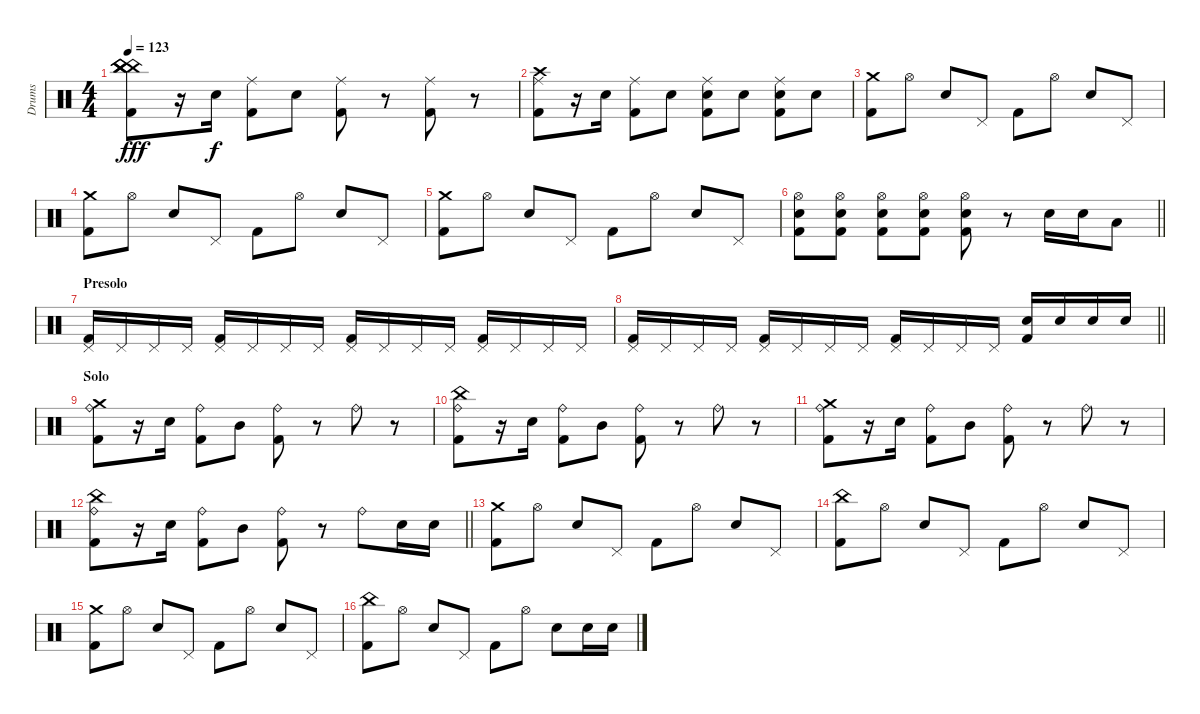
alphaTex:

\track ("Drums" "Drums") {instrument percussion}
\staff {score}
\articulation defaults
\ts (4 4)
\tempo 123
\clef neutral
\ks c
("China (hit)" "China (hit)" "China (hit)" "China (hit)" "Kick (hit) 2").8{dy fff} r.16 "Snare (hit) 2".16{dy f} ("Ride (middle)" "Kick (hit) 2").8 "Snare (hit) 2".8 ("Ride (middle)" "Kick (hit) 2").8 r.8 ("Ride (middle)" "Kick (hit) 2").8 r.8 |
("Crash high (hit)" "Ride (middle)" "Kick (hit) 2").8 r.16 "Snare (hit) 2".16 ("Ride (middle)" "Kick (hit) 2").8 "Snare (hit) 2".8 ("Ride (middle)" "Snare (hit) 2" "Kick (hit) 2").8 "Snare (hit) 2".8 ("Ride (middle)" "Snare (hit) 2" "Kick (hit) 2").8 "Snare (hit) 2".8 |
("Crash medium (hit)" "Kick (hit) 2").8 "Hi-Hat (open)".8 "Snare (hit) 2".8 "Pedal Hi-Hat (hit)".8 "Kick (hit) 2".8 "Hi-Hat (open)".8 "Snare (hit) 2".8 "Pedal Hi-Hat (hit)".8 |
("Crash medium (hit)" "Kick (hit) 2").8 "Hi-Hat (open)".8 "Snare (hit) 2".8 "Pedal Hi-Hat (hit)".8 "Kick (hit) 2".8 "Hi-Hat (open)".8 "Snare (hit) 2".8 "Pedal Hi-Hat (hit)".8 |
("Crash medium (hit)" "Kick (hit) 2").8 "Hi-Hat (open)".8 "Snare (hit) 2".8 "Pedal Hi-Hat (hit)".8 "Kick (hit) 2".8 "Hi-Hat (open)".8 "Snare (hit) 2".8 "Pedal Hi-Hat (hit)".8 |
\barLineRight lightlight
("Hi-Hat (open)" "Snare (hit) 2" "Kick (hit) 2").8 ("Hi-Hat (open)" "Snare (hit) 2" "Kick (hit) 2").8 ("Hi-Hat (open)" "Snare (hit) 2" "Kick (hit) 2").8 ("Hi-Hat (open)" "Snare (hit) 2" "Kick (hit) 2").8 ("Hi-Hat (open)" "Snare (hit) 2" "Kick (hit) 2").8 r.8 "Snare (hit) 2".16 "Snare (hit) 2".16 "Low Tom (hit)".8 |
\section ("" "Presolo")
("Pedal Hi-Hat (hit)" "Kick (hit) 2").16 "Pedal Hi-Hat (hit)".16 "Pedal Hi-Hat (hit)".16 "Pedal Hi-Hat (hit)".16 ("Pedal Hi-Hat (hit)" "Kick (hit) 2").16 "Pedal Hi-Hat (hit)".16 "Pedal Hi-Hat (hit)".16 "Pedal Hi-Hat (hit)".16 ("Pedal Hi-Hat (hit)" "Kick (hit) 2").16 "Pedal Hi-Hat (hit)".16 "Pedal Hi-Hat (hit)".16 "Pedal Hi-Hat (hit)".16 ("Pedal Hi-Hat (hit)" "Kick (hit) 2").16 "Pedal Hi-Hat (hit)".16 "Pedal Hi-Hat (hit)".16 "Pedal Hi-Hat (hit)".16 |
\barLineRight lightlight
("Pedal Hi-Hat (hit)" "Kick (hit) 2").16 "Pedal Hi-Hat (hit)".16 "Pedal Hi-Hat (hit)".16 "Pedal Hi-Hat (hit)".16 ("Pedal Hi-Hat (hit)" "Kick (hit) 2").16 "Pedal Hi-Hat (hit)".16 "Pedal Hi-Hat (hit)".16 "Pedal Hi-Hat (hit)".16 ("Pedal Hi-Hat (hit)" "Kick (hit) 2").16 "Pedal Hi-Hat (hit)".16 "Pedal Hi-Hat (hit)".16 "Pedal Hi-Hat (hit)".16 ("Snare (hit) 2" "Kick (hit) 2").16 "Snare (hit) 2".16 "Snare (hit) 2".16 "Snare (hit) 2".16 |
\section ("" "Solo")
("Crash medium (hit)" "Ride (bell)" "Kick (hit) 2").8 r.16 "Snare (hit) 2".16 ("Ride (bell)" "Kick (hit) 2").8 "Mid Tom (hit)".8 ("Ride (bell)" "Kick (hit) 2").8 r.8 "Ride (bell)".8 r.8 |
("China (hit)" "Ride (bell)" "Kick (hit) 2").8 r.16 "Snare (hit) 2".16 ("Ride (bell)" "Kick (hit) 2").8 "Mid Tom (hit)".8 ("Ride (bell)" "Kick (hit) 2").8 r.8 "Ride (bell)".8 r.8 |
("Crash medium (hit)" "Ride (bell)" "Kick (hit) 2").8 r.16 "Snare (hit) 2".16 ("Ride (bell)" "Kick (hit) 2").8 "Mid Tom (hit)".8 ("Ride (bell)" "Kick (hit) 2").8 r.8 "Ride (bell)".8 r.8 |
\barLineRight lightlight
("China (hit)" "Ride (bell)" "Kick (hit) 2").8 r.16 "Snare (hit) 2".16 ("Ride (bell)" "Kick (hit) 2").8 "Mid Tom (hit)".8 ("Ride (bell)" "Kick (hit) 2").8 r.8 "Ride (bell)".8 "Snare (hit) 2".16 "Snare (hit) 2".16 |
("Crash medium (hit)" "Kick (hit) 2").8 "Hi-Hat (open)".8 "Snare (hit) 2".8 "Pedal Hi-Hat (hit)".8 "Kick (hit) 2".8 "Hi-Hat (open)".8 "Snare (hit) 2".8 "Pedal Hi-Hat (hit)".8 |
("China (hit)" "Kick (hit) 2").8 "Hi-Hat (open)".8 "Snare (hit) 2".8 "Pedal Hi-Hat (hit)".8 "Kick (hit) 2".8 "Hi-Hat (open)".8 "Snare (hit) 2".8 "Pedal Hi-Hat (hit)".8 |
("Crash medium (hit)" "Kick (hit) 2").8 "Hi-Hat (open)".8 "Snare (hit) 2".8 "Pedal Hi-Hat (hit)".8 "Kick (hit) 2".8 "Hi-Hat (open)".8 "Snare (hit) 2".8 "Pedal Hi-Hat (hit)".8 |
("China (hit)" "Kick (hit) 2").8 "Hi-Hat (open)".8 "Snare (hit) 2".8 "Pedal Hi-Hat (hit)".8 "Kick (hit) 2".8 "Hi-Hat (open)".8 "Snare (hit) 2".8 "Snare (hit) 2".16 "Snare (hit) 2".16
